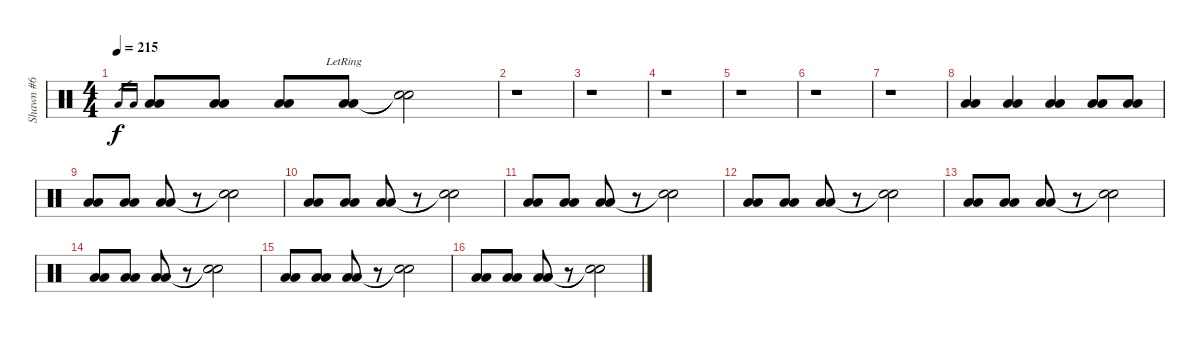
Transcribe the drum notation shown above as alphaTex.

\track ("Shawn #6" "Shawn #6") {instrument percussion}
\staff {score}
\articulation defaults
\ts (4 4)
\tempo 215
\clef neutral
\ks c "Low Floor Tom (hit)"{sl}.16{gr dy f} "Low Floor Tom (hit)"{sl}.16{gr}
("Low Floor Tom (hit)" "Low Floor Tom (hit)").8{volume 16} ("Low Floor Tom (hit)" "Low Floor Tom (hit)").8 ("Low Floor Tom (hit)" "Low Floor Tom (hit)").8 ("Low Floor Tom (hit)"{lr} "Low Floor Tom (hit)"{lr}).8 ("Snare (hit)"{t} "Snare (hit)"{t}).2 |
r.1{volume 10} |
r.1 |
r.1 |
r.1 |
r.1 |
r.1 |
("Low Floor Tom (hit)" "Low Floor Tom (hit)").4 ("Low Floor Tom (hit)" "Low Floor Tom (hit)").4 ("Low Floor Tom (hit)" "Low Floor Tom (hit)").4 ("Low Floor Tom (hit)" "Low Floor Tom (hit)").8 ("Low Floor Tom (hit)" "Low Floor Tom (hit)").8 |
("Low Floor Tom (hit)" "Low Floor Tom (hit)").8 ("Low Floor Tom (hit)" "Low Floor Tom (hit)").8 ("Low Floor Tom (hit)" "Low Floor Tom (hit)").8 r.8 ("Snare (hit)"{t} "Snare (hit)"{t}).2 |
("Low Floor Tom (hit)" "Low Floor Tom (hit)").8 ("Low Floor Tom (hit)" "Low Floor Tom (hit)").8 ("Low Floor Tom (hit)" "Low Floor Tom (hit)").8 r.8 ("Snare (hit)"{t} "Snare (hit)"{t}).2 |
("Low Floor Tom (hit)" "Low Floor Tom (hit)").8 ("Low Floor Tom (hit)" "Low Floor Tom (hit)").8 ("Low Floor Tom (hit)" "Low Floor Tom (hit)").8 r.8 ("Snare (hit)"{t} "Snare (hit)"{t}).2 |
("Low Floor Tom (hit)" "Low Floor Tom (hit)").8 ("Low Floor Tom (hit)" "Low Floor Tom (hit)").8 ("Low Floor Tom (hit)" "Low Floor Tom (hit)").8 r.8 ("Snare (hit)"{t} "Snare (hit)"{t}).2 |
("Low Floor Tom (hit)" "Low Floor Tom (hit)").8 ("Low Floor Tom (hit)" "Low Floor Tom (hit)").8 ("Low Floor Tom (hit)" "Low Floor Tom (hit)").8 r.8 ("Snare (hit)"{t} "Snare (hit)"{t}).2 |
("Low Floor Tom (hit)" "Low Floor Tom (hit)").8 ("Low Floor Tom (hit)" "Low Floor Tom (hit)").8 ("Low Floor Tom (hit)" "Low Floor Tom (hit)").8 r.8 ("Snare (hit)"{t} "Snare (hit)"{t}).2 |
("Low Floor Tom (hit)" "Low Floor Tom (hit)").8 ("Low Floor Tom (hit)" "Low Floor Tom (hit)").8 ("Low Floor Tom (hit)" "Low Floor Tom (hit)").8 r.8 ("Snare (hit)"{t} "Snare (hit)"{t}).2 |
("Low Floor Tom (hit)" "Low Floor Tom (hit)").8 ("Low Floor Tom (hit)" "Low Floor Tom (hit)").8 ("Low Floor Tom (hit)" "Low Floor Tom (hit)").8 r.8 ("Snare (hit)"{t} "Snare (hit)"{t}).2
